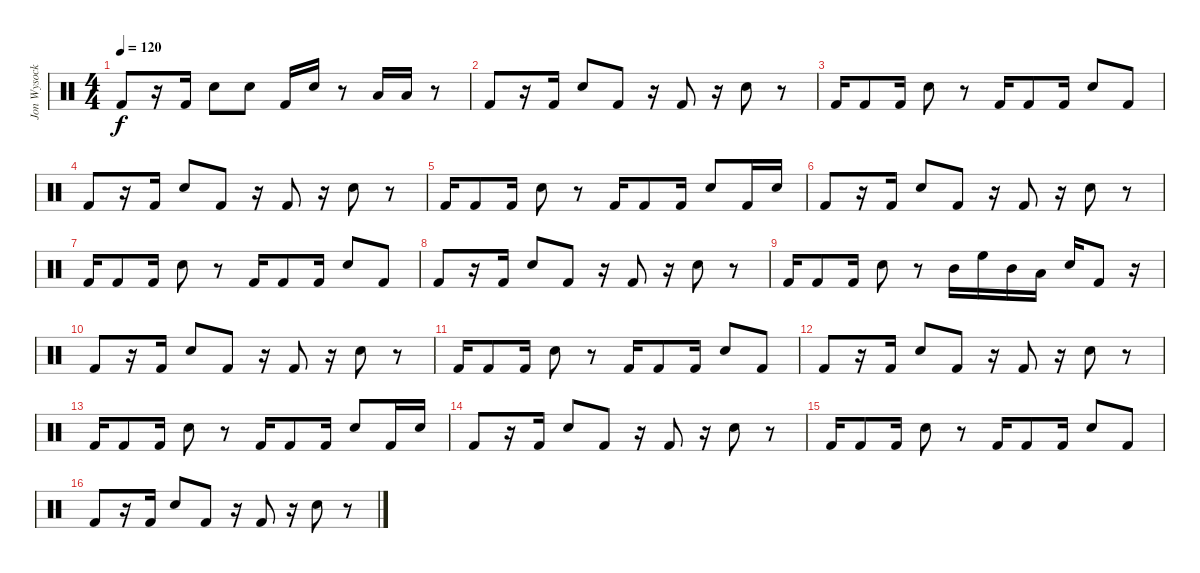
\track ("Jon Wysocki" "Jon Wysock") {instrument percussion}
\staff {score}
\articulation defaults
\ts (4 4)
\tempo 120
\clef neutral
\ks c "Kick (hit) 2".8{dy f}
r.16 "Kick (hit) 2".16 "Electric Snare (hit)".8 "Electric Snare (hit)".8 "Kick (hit) 2".16 "Electric Snare (hit)".16 r.8 "Low Tom (hit)".16 "Low Tom (hit)".16 r.8 |
"Kick (hit) 2".8 r.16 "Kick (hit) 2".16 "Electric Snare (hit)".8 "Kick (hit) 2".8 r.16 "Kick (hit) 2".8 r.16 "Electric Snare (hit)".8 r.8 |
"Kick (hit) 2".16 "Kick (hit) 2".8 "Kick (hit) 2".16 "Electric Snare (hit)".8 r.8 "Kick (hit) 2".16 "Kick (hit) 2".8 "Kick (hit) 2".16 "Electric Snare (hit)".8 "Kick (hit) 2".8 |
"Kick (hit) 2".8 r.16 "Kick (hit) 2".16 "Electric Snare (hit)".8 "Kick (hit) 2".8 r.16 "Kick (hit) 2".8 r.16 "Electric Snare (hit)".8 r.8 |
"Kick (hit) 2".16 "Kick (hit) 2".8 "Kick (hit) 2".16 "Electric Snare (hit)".8 r.8 "Kick (hit) 2".16 "Kick (hit) 2".8 "Kick (hit) 2".16 "Electric Snare (hit)".8 "Kick (hit) 2".16 "Electric Snare (hit)".16 |
"Kick (hit) 2".8 r.16 "Kick (hit) 2".16 "Electric Snare (hit)".8 "Kick (hit) 2".8 r.16 "Kick (hit) 2".8 r.16 "Electric Snare (hit)".8 r.8 |
"Kick (hit) 2".16 "Kick (hit) 2".8 "Kick (hit) 2".16 "Electric Snare (hit)".8 r.8 "Kick (hit) 2".16 "Kick (hit) 2".8 "Kick (hit) 2".16 "Electric Snare (hit)".8 "Kick (hit) 2".8 |
"Kick (hit) 2".8 r.16 "Kick (hit) 2".16 "Electric Snare (hit)".8 "Kick (hit) 2".8 r.16 "Kick (hit) 2".8 r.16 "Electric Snare (hit)".8 r.8 |
"Kick (hit) 2".16 "Kick (hit) 2".8 "Kick (hit) 2".16 "Electric Snare (hit)".8 r.8 "Mid Tom (hit)".16 "High Floor Tom (hit)".16 "Mid Tom (hit)".16 "Low Tom (hit)".16 "Electric Snare (hit)".16 "Kick (hit) 2".8 r.16 |
"Kick (hit) 2".8 r.16 "Kick (hit) 2".16 "Electric Snare (hit)".8 "Kick (hit) 2".8 r.16 "Kick (hit) 2".8 r.16 "Electric Snare (hit)".8 r.8 |
"Kick (hit) 2".16 "Kick (hit) 2".8 "Kick (hit) 2".16 "Electric Snare (hit)".8 r.8 "Kick (hit) 2".16 "Kick (hit) 2".8 "Kick (hit) 2".16 "Electric Snare (hit)".8 "Kick (hit) 2".8 |
"Kick (hit) 2".8 r.16 "Kick (hit) 2".16 "Electric Snare (hit)".8 "Kick (hit) 2".8 r.16 "Kick (hit) 2".8 r.16 "Electric Snare (hit)".8 r.8 |
"Kick (hit) 2".16 "Kick (hit) 2".8 "Kick (hit) 2".16 "Electric Snare (hit)".8 r.8 "Kick (hit) 2".16 "Kick (hit) 2".8 "Kick (hit) 2".16 "Electric Snare (hit)".8 "Kick (hit) 2".16 "Electric Snare (hit)".16 |
"Kick (hit) 2".8 r.16 "Kick (hit) 2".16 "Electric Snare (hit)".8 "Kick (hit) 2".8 r.16 "Kick (hit) 2".8 r.16 "Electric Snare (hit)".8 r.8 |
"Kick (hit) 2".16 "Kick (hit) 2".8 "Kick (hit) 2".16 "Electric Snare (hit)".8 r.8 "Kick (hit) 2".16 "Kick (hit) 2".8 "Kick (hit) 2".16 "Electric Snare (hit)".8 "Kick (hit) 2".8 |
"Kick (hit) 2".8 r.16 "Kick (hit) 2".16 "Electric Snare (hit)".8 "Kick (hit) 2".8 r.16 "Kick (hit) 2".8 r.16 "Electric Snare (hit)".8 r.8
